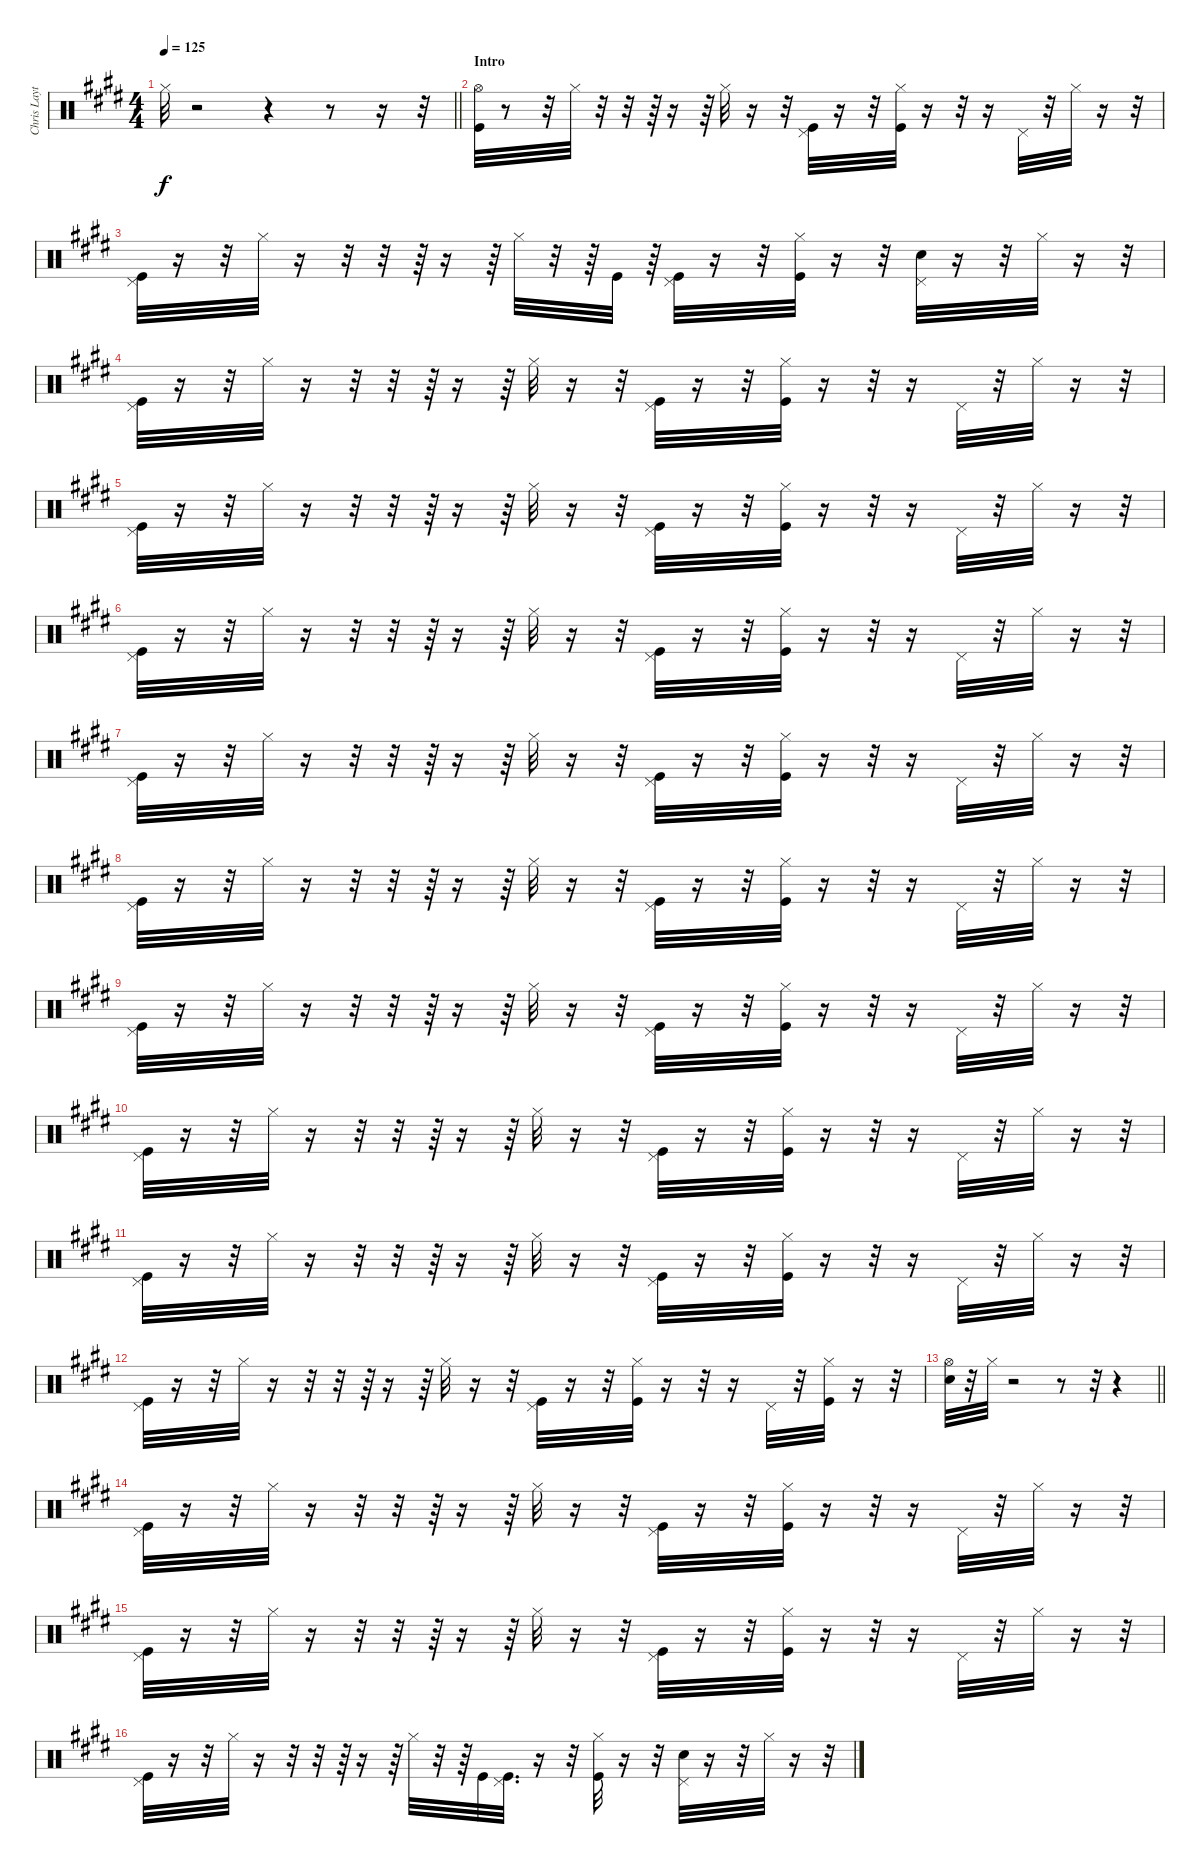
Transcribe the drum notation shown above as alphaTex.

\track ("Chris Layton" "Chris Layt") {instrument percussion}
\staff {score}
\articulation defaults
\ts (4 4)
\tempo 125
\clef neutral
\barLineRight lightlight
\ks e "Hi-Hat (closed)".32{dy f}
r.2 r.4 r.8 r.16 r.32 |
\section ("" "Intro")
("Hi-Hat (open)" "Kick (hit)").32 r.8 r.32 "Hi-Hat (closed)".32 r.32 r.32 r.64 r.16 r.64 "Hi-Hat (closed)".32 r.16 r.32 ("Kick (hit)" "Pedal Hi-Hat (hit)").32 r.16 r.32 ("Kick (hit)" "Hi-Hat (closed)").32 r.16 r.32 r.16 "Pedal Hi-Hat (hit)".32 r.32 "Hi-Hat (closed)".32 r.16 r.32 |
("Pedal Hi-Hat (hit)" "Kick (hit)").32 r.16 r.32 "Hi-Hat (closed)".32 r.16 r.32 r.32 r.64 r.16 r.64 "Hi-Hat (closed)".32 r.32 r.64 "Kick (hit)".32 r.64 ("Kick (hit)" "Pedal Hi-Hat (hit)").32 r.16 r.32 ("Kick (hit)" "Hi-Hat (closed)").32 r.16 r.32 ("Snare (hit) 2" "Pedal Hi-Hat (hit)").32 r.16 r.32 "Hi-Hat (closed)".32 r.16 r.32 |
("Pedal Hi-Hat (hit)" "Kick (hit)").32 r.16 r.32 "Hi-Hat (closed)".32 r.16 r.32 r.32 r.64 r.16 r.64 "Hi-Hat (closed)".32 r.16 r.32 ("Kick (hit)" "Pedal Hi-Hat (hit)").32 r.16 r.32 ("Kick (hit)" "Hi-Hat (closed)").32 r.16 r.32 r.16 "Pedal Hi-Hat (hit)".32 r.32 "Hi-Hat (closed)".32 r.16 r.32 |
("Pedal Hi-Hat (hit)" "Kick (hit)").32 r.16 r.32 "Hi-Hat (closed)".32 r.16 r.32 r.32 r.64 r.16 r.64 "Hi-Hat (closed)".32 r.16 r.32 ("Kick (hit)" "Pedal Hi-Hat (hit)").32 r.16 r.32 ("Kick (hit)" "Hi-Hat (closed)").32 r.16 r.32 r.16 "Pedal Hi-Hat (hit)".32 r.32 "Hi-Hat (closed)".32 r.16 r.32 |
("Pedal Hi-Hat (hit)" "Kick (hit)").32 r.16 r.32 "Hi-Hat (closed)".32 r.16 r.32 r.32 r.64 r.16 r.64 "Hi-Hat (closed)".32 r.16 r.32 ("Kick (hit)" "Pedal Hi-Hat (hit)").32 r.16 r.32 ("Kick (hit)" "Hi-Hat (closed)").32 r.16 r.32 r.16 "Pedal Hi-Hat (hit)".32 r.32 "Hi-Hat (closed)".32 r.16 r.32 |
("Pedal Hi-Hat (hit)" "Kick (hit)").32 r.16 r.32 "Hi-Hat (closed)".32 r.16 r.32 r.32 r.64 r.16 r.64 "Hi-Hat (closed)".32 r.16 r.32 ("Kick (hit)" "Pedal Hi-Hat (hit)").32 r.16 r.32 ("Kick (hit)" "Hi-Hat (closed)").32 r.16 r.32 r.16 "Pedal Hi-Hat (hit)".32 r.32 "Hi-Hat (closed)".32 r.16 r.32 |
("Pedal Hi-Hat (hit)" "Kick (hit)").32 r.16 r.32 "Hi-Hat (closed)".32 r.16 r.32 r.32 r.64 r.16 r.64 "Hi-Hat (closed)".32 r.16 r.32 ("Kick (hit)" "Pedal Hi-Hat (hit)").32 r.16 r.32 ("Kick (hit)" "Hi-Hat (closed)").32 r.16 r.32 r.16 "Pedal Hi-Hat (hit)".32 r.32 "Hi-Hat (closed)".32 r.16 r.32 |
("Pedal Hi-Hat (hit)" "Kick (hit)").32 r.16 r.32 "Hi-Hat (closed)".32 r.16 r.32 r.32 r.64 r.16 r.64 "Hi-Hat (closed)".32 r.16 r.32 ("Kick (hit)" "Pedal Hi-Hat (hit)").32 r.16 r.32 ("Kick (hit)" "Hi-Hat (closed)").32 r.16 r.32 r.16 "Pedal Hi-Hat (hit)".32 r.32 "Hi-Hat (closed)".32 r.16 r.32 |
("Pedal Hi-Hat (hit)" "Kick (hit)").32 r.16 r.32 "Hi-Hat (closed)".32 r.16 r.32 r.32 r.64 r.16 r.64 "Hi-Hat (closed)".32 r.16 r.32 ("Kick (hit)" "Pedal Hi-Hat (hit)").32 r.16 r.32 ("Kick (hit)" "Hi-Hat (closed)").32 r.16 r.32 r.16 "Pedal Hi-Hat (hit)".32 r.32 "Hi-Hat (closed)".32 r.16 r.32 |
("Pedal Hi-Hat (hit)" "Kick (hit)").32 r.16 r.32 "Hi-Hat (closed)".32 r.16 r.32 r.32 r.64 r.16 r.64 "Hi-Hat (closed)".32 r.16 r.32 ("Kick (hit)" "Pedal Hi-Hat (hit)").32 r.16 r.32 ("Kick (hit)" "Hi-Hat (closed)").32 r.16 r.32 r.16 "Pedal Hi-Hat (hit)".32 r.32 "Hi-Hat (closed)".32 r.16 r.32 |
("Pedal Hi-Hat (hit)" "Kick (hit)").32 r.16 r.32 "Hi-Hat (closed)".32 r.16 r.32 r.32 r.64 r.16 r.64 "Hi-Hat (closed)".32 r.16 r.32 ("Kick (hit)" "Pedal Hi-Hat (hit)").32 r.16 r.32 ("Kick (hit)" "Hi-Hat (closed)").32 r.16 r.32 r.16 "Pedal Hi-Hat (hit)".32 r.32 ("Kick (hit)" "Hi-Hat (closed)").32 r.16 r.32 |
\barLineRight lightlight
("Hi-Hat (open)" "Snare (hit) 2").32 r.32 "Hi-Hat (closed)".32 r.2 r.8 r.32 r.4 |
("Pedal Hi-Hat (hit)" "Kick (hit)").32 r.16 r.32 "Hi-Hat (closed)".32 r.16 r.32 r.32 r.64 r.16 r.64 "Hi-Hat (closed)".32 r.16 r.32 ("Kick (hit)" "Pedal Hi-Hat (hit)").32 r.16 r.32 ("Kick (hit)" "Hi-Hat (closed)").32 r.16 r.32 r.16 "Pedal Hi-Hat (hit)".32 r.32 "Hi-Hat (closed)".32 r.16 r.32 |
("Pedal Hi-Hat (hit)" "Kick (hit)").32 r.16 r.32 "Hi-Hat (closed)".32 r.16 r.32 r.32 r.64 r.16 r.64 "Hi-Hat (closed)".32 r.16 r.32 ("Kick (hit)" "Pedal Hi-Hat (hit)").32 r.16 r.32 ("Kick (hit)" "Hi-Hat (closed)").32 r.16 r.32 r.16 "Pedal Hi-Hat (hit)".32 r.32 "Hi-Hat (closed)".32 r.16 r.32 |
("Pedal Hi-Hat (hit)" "Kick (hit)").32 r.16 r.32 "Hi-Hat (closed)".32 r.16 r.32 r.32 r.64 r.16 r.64 "Hi-Hat (closed)".32 r.32 r.64 "Kick (hit)".32 ("Kick (hit)" "Pedal Hi-Hat (hit)").32{d} r.16 r.32 ("Kick (hit)" "Hi-Hat (closed)").32 r.16 r.32 ("Snare (hit) 2" "Pedal Hi-Hat (hit)").32 r.16 r.32 "Hi-Hat (closed)".32 r.16 r.32
